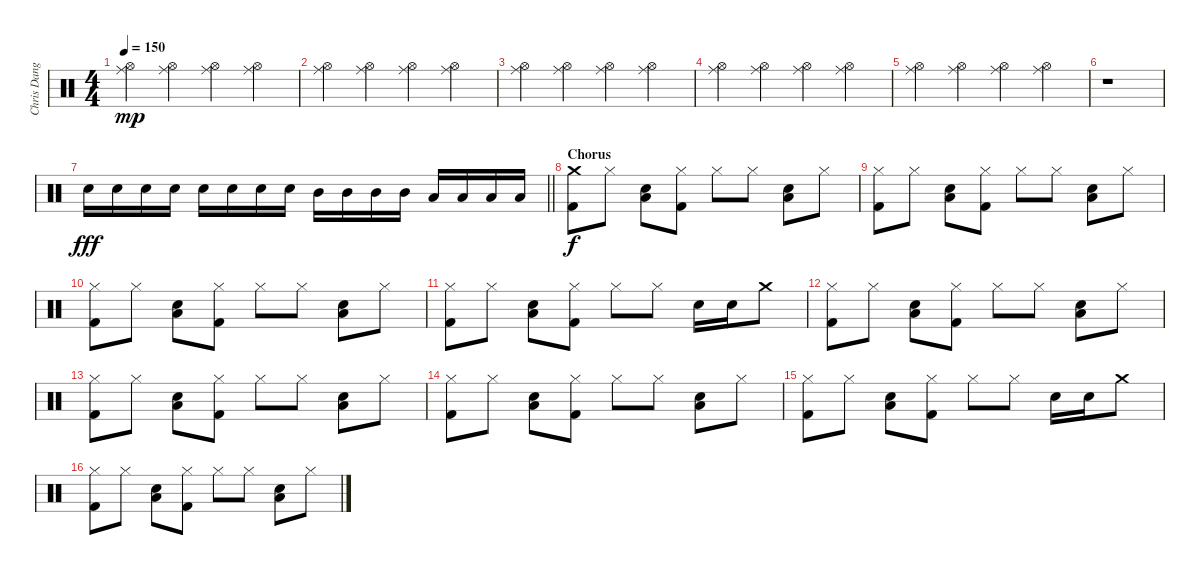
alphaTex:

\track ("Chris Dangerous" "Chris Dang") {instrument percussion}
\staff {score}
\articulation defaults
\ts (4 4)
\tempo 150
\clef neutral
\ks c
("Hi-Hat (open)" "Ride (middle)").4{dy mp} ("Hi-Hat (open)" "Ride (middle)").4 ("Hi-Hat (open)" "Ride (middle)").4 ("Hi-Hat (open)" "Ride (middle)").4 |
("Hi-Hat (open)" "Ride (middle)").4 ("Hi-Hat (open)" "Ride (middle)").4 ("Hi-Hat (open)" "Ride (middle)").4 ("Hi-Hat (open)" "Ride (middle)").4 |
("Hi-Hat (open)" "Ride (middle)").4 ("Hi-Hat (open)" "Ride (middle)").4 ("Hi-Hat (open)" "Ride (middle)").4 ("Hi-Hat (open)" "Ride (middle)").4 |
("Hi-Hat (open)" "Ride (middle)").4 ("Hi-Hat (open)" "Ride (middle)").4 ("Hi-Hat (open)" "Ride (middle)").4 ("Hi-Hat (open)" "Ride (middle)").4 |
("Hi-Hat (open)" "Ride (middle)").4 ("Hi-Hat (open)" "Ride (middle)").4 ("Hi-Hat (open)" "Ride (middle)").4 ("Hi-Hat (open)" "Ride (middle)").4 |
r.1 |
\barLineRight lightlight "Snare (hit) 2".16{dy fff} "Snare (hit) 2".16 "Snare (hit) 2".16 "Snare (hit) 2".16 "Snare (hit) 2".16 "Snare (hit) 2".16 "Snare (hit) 2".16 "Snare (hit) 2".16 "Mid Tom (hit)".16 "Mid Tom (hit)".16 "Mid Tom (hit)".16 "Mid Tom (hit)".16 "Low Tom (hit)".16 "Low Tom (hit)".16 "Low Tom (hit)".16 "Low Tom (hit)".16
|
\section ("" "Chorus")
("Crash medium (hit)" "Kick (hit) 2").8{dy f} "Hi-Hat (closed)".8 ("Low Floor Tom (hit)" "Snare (hit) 2").8 ("Hi-Hat (closed)" "Kick (hit) 2").8 "Hi-Hat (closed)".8 "Hi-Hat (closed)".8 ("Low Floor Tom (hit)" "Snare (hit) 2").8 "Hi-Hat (closed)".8 |
("Hi-Hat (closed)" "Kick (hit) 2").8 "Hi-Hat (closed)".8 ("Low Floor Tom (hit)" "Snare (hit) 2").8 ("Hi-Hat (closed)" "Kick (hit) 2").8 "Hi-Hat (closed)".8 "Hi-Hat (closed)".8 ("Low Floor Tom (hit)" "Snare (hit) 2").8 "Hi-Hat (closed)".8 |
("Hi-Hat (closed)" "Kick (hit) 2").8 "Hi-Hat (closed)".8 ("Low Floor Tom (hit)" "Snare (hit) 2").8 ("Hi-Hat (closed)" "Kick (hit) 2").8 "Hi-Hat (closed)".8 "Hi-Hat (closed)".8 ("Low Floor Tom (hit)" "Snare (hit) 2").8 "Hi-Hat (closed)".8 |
("Hi-Hat (closed)" "Kick (hit) 2").8 "Hi-Hat (closed)".8 ("Low Floor Tom (hit)" "Snare (hit) 2").8 ("Hi-Hat (closed)" "Kick (hit) 2").8 "Hi-Hat (closed)".8 "Hi-Hat (closed)".8 "Snare (hit) 2".16 "Snare (hit) 2".16 "Crash medium (hit)".8 |
("Hi-Hat (closed)" "Kick (hit) 2").8 "Hi-Hat (closed)".8 ("Low Floor Tom (hit)" "Snare (hit) 2").8 ("Hi-Hat (closed)" "Kick (hit) 2").8 "Hi-Hat (closed)".8 "Hi-Hat (closed)".8 ("Low Floor Tom (hit)" "Snare (hit) 2").8 "Hi-Hat (closed)".8 |
("Hi-Hat (closed)" "Kick (hit) 2").8 "Hi-Hat (closed)".8 ("Low Floor Tom (hit)" "Snare (hit) 2").8 ("Hi-Hat (closed)" "Kick (hit) 2").8 "Hi-Hat (closed)".8 "Hi-Hat (closed)".8 ("Low Floor Tom (hit)" "Snare (hit) 2").8 "Hi-Hat (closed)".8 |
("Hi-Hat (closed)" "Kick (hit) 2").8 "Hi-Hat (closed)".8 ("Low Floor Tom (hit)" "Snare (hit) 2").8 ("Hi-Hat (closed)" "Kick (hit) 2").8 "Hi-Hat (closed)".8 "Hi-Hat (closed)".8 ("Low Floor Tom (hit)" "Snare (hit) 2").8 "Hi-Hat (closed)".8 |
("Hi-Hat (closed)" "Kick (hit) 2").8 "Hi-Hat (closed)".8 ("Low Floor Tom (hit)" "Snare (hit) 2").8 ("Hi-Hat (closed)" "Kick (hit) 2").8 "Hi-Hat (closed)".8 "Hi-Hat (closed)".8 "Snare (hit) 2".16 "Snare (hit) 2".16 "Crash medium (hit)".8 |
("Hi-Hat (closed)" "Kick (hit) 2").8 "Hi-Hat (closed)".8 ("Low Floor Tom (hit)" "Snare (hit) 2").8 ("Hi-Hat (closed)" "Kick (hit) 2").8 "Hi-Hat (closed)".8 "Hi-Hat (closed)".8 ("Low Floor Tom (hit)" "Snare (hit) 2").8 "Hi-Hat (closed)".8
